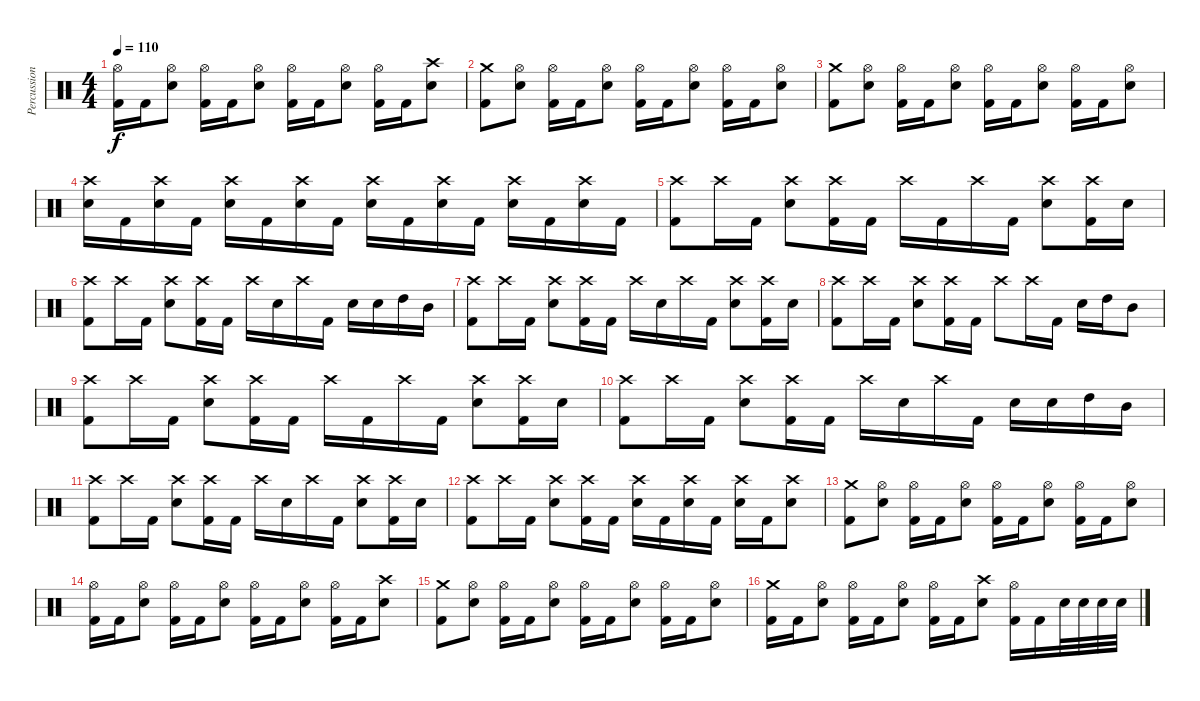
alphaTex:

\track ("Percussion" "Percussion") {instrument percussion}
\staff {score}
\articulation defaults
\ts (4 4)
\tempo 110
\clef neutral
\ks c
("Hi-Hat (open)" "Kick (hit) 2").16{dy f} "Kick (hit) 2".16 ("Hi-Hat (open)" "Snare (hit) 2").8 ("Hi-Hat (open)" "Kick (hit) 2").16 "Kick (hit) 2".16 ("Hi-Hat (open)" "Snare (hit) 2").8 ("Hi-Hat (open)" "Kick (hit) 2").16 "Kick (hit) 2".16 ("Hi-Hat (open)" "Snare (hit) 2").8 ("Hi-Hat (open)" "Kick (hit) 2").16 "Kick (hit) 2".16 ("Crash high (hit)" "Snare (hit) 2").8 |
("Crash medium (hit)" "Kick (hit) 2").8 ("Hi-Hat (open)" "Snare (hit) 2").8 ("Hi-Hat (open)" "Kick (hit) 2").16 "Kick (hit) 2".16 ("Hi-Hat (open)" "Snare (hit) 2").8 ("Hi-Hat (open)" "Kick (hit) 2").16 "Kick (hit) 2".16 ("Hi-Hat (open)" "Snare (hit) 2").8 ("Hi-Hat (open)" "Kick (hit) 2").16 "Kick (hit) 2".16 ("Hi-Hat (open)" "Snare (hit) 2").8 |
("Crash medium (hit)" "Kick (hit) 2").8 ("Hi-Hat (open)" "Snare (hit) 2").8 ("Hi-Hat (open)" "Kick (hit) 2").16 "Kick (hit) 2".16 ("Hi-Hat (open)" "Snare (hit) 2").8 ("Hi-Hat (open)" "Kick (hit) 2").16 "Kick (hit) 2".16 ("Hi-Hat (open)" "Snare (hit) 2").8 ("Hi-Hat (open)" "Kick (hit) 2").16 "Kick (hit) 2".16 ("Hi-Hat (open)" "Snare (hit) 2").8 |
("Crash high (hit)" "Snare (hit) 2").16 "Kick (hit) 2".16 ("Crash high (hit)" "Snare (hit) 2").16 "Kick (hit) 2".16 ("Crash high (hit)" "Snare (hit) 2").16 "Kick (hit) 2".16 ("Crash high (hit)" "Snare (hit) 2").16 "Kick (hit) 2".16 ("Crash high (hit)" "Snare (hit) 2").16 "Kick (hit) 2".16 ("Crash high (hit)" "Snare (hit) 2").16 "Kick (hit) 2".16 ("Crash high (hit)" "Snare (hit) 2").16 "Kick (hit) 2".16 ("Crash high (hit)" "Snare (hit) 2").16 "Kick (hit) 2".16 |
("Crash high (hit)" "Kick (hit) 2").8 "Crash high (hit)".16 "Kick (hit) 2".16 ("Crash high (hit)" "Snare (hit) 2").8 ("Crash high (hit)" "Kick (hit) 2").16 "Kick (hit) 2".16 "Crash high (hit)".16 "Kick (hit) 2".16 "Crash high (hit)".16 "Kick (hit) 2".16 ("Crash high (hit)" "Snare (hit) 2").8 ("Crash high (hit)" "Kick (hit) 2").16 "Snare (hit) 2".16 |
("Crash high (hit)" "Kick (hit) 2").8 "Crash high (hit)".16 "Kick (hit) 2".16 ("Crash high (hit)" "Snare (hit) 2").8 ("Crash high (hit)" "Kick (hit) 2").16 "Kick (hit) 2".16 "Crash high (hit)".16 "Snare (hit) 2".16 "Crash high (hit)".16 "Kick (hit) 2".16 "Snare (hit) 2".16 "Snare (hit) 2".16 "High Tom (hit)".16 "Mid Tom (hit)".16 |
("Crash high (hit)" "Kick (hit) 2").8 "Crash high (hit)".16 "Kick (hit) 2".16 ("Crash high (hit)" "Snare (hit) 2").8 ("Crash high (hit)" "Kick (hit) 2").16 "Kick (hit) 2".16 "Crash high (hit)".16 "Snare (hit) 2".16 "Crash high (hit)".16 "Kick (hit) 2".16 ("Crash high (hit)" "Snare (hit) 2").8 ("Crash high (hit)" "Kick (hit) 2").16 "Snare (hit) 2".16 |
("Crash high (hit)" "Kick (hit) 2").8 "Crash high (hit)".16 "Kick (hit) 2".16 ("Crash high (hit)" "Snare (hit) 2").8 ("Crash high (hit)" "Kick (hit) 2").16 "Kick (hit) 2".16 "Crash high (hit)".8 "Crash high (hit)".16 "Kick (hit) 2".16 "Snare (hit) 2".16 "High Tom (hit)".16 "Mid Tom (hit)".8 |
("Crash high (hit)" "Kick (hit) 2").8 "Crash high (hit)".16 "Kick (hit) 2".16 ("Crash high (hit)" "Snare (hit) 2").8 ("Crash high (hit)" "Kick (hit) 2").16 "Kick (hit) 2".16 "Crash high (hit)".16 "Kick (hit) 2".16 "Crash high (hit)".16 "Kick (hit) 2".16 ("Crash high (hit)" "Snare (hit) 2").8 ("Crash high (hit)" "Kick (hit) 2").16 "Snare (hit) 2".16 |
("Crash high (hit)" "Kick (hit) 2").8 "Crash high (hit)".16 "Kick (hit) 2".16 ("Crash high (hit)" "Snare (hit) 2").8 ("Crash high (hit)" "Kick (hit) 2").16 "Kick (hit) 2".16 "Crash high (hit)".16 "Snare (hit) 2".16 "Crash high (hit)".16 "Kick (hit) 2".16 "Snare (hit) 2".16 "Snare (hit) 2".16 "High Tom (hit)".16 "Mid Tom (hit)".16 |
("Crash high (hit)" "Kick (hit) 2").8 "Crash high (hit)".16 "Kick (hit) 2".16 ("Crash high (hit)" "Snare (hit) 2").8 ("Crash high (hit)" "Kick (hit) 2").16 "Kick (hit) 2".16 "Crash high (hit)".16 "Snare (hit) 2".16 "Crash high (hit)".16 "Kick (hit) 2".16 ("Crash high (hit)" "Snare (hit) 2").8 ("Crash high (hit)" "Kick (hit) 2").16 "Snare (hit) 2".16 |
("Crash high (hit)" "Kick (hit) 2").8 "Crash high (hit)".16 "Kick (hit) 2".16 ("Crash high (hit)" "Snare (hit) 2").8 ("Crash high (hit)" "Kick (hit) 2").16 "Kick (hit) 2".16 ("Crash high (hit)" "Snare (hit) 2").16 "Kick (hit) 2".16 ("Crash high (hit)" "Snare (hit) 2").16 "Kick (hit) 2".16 ("Crash high (hit)" "Snare (hit) 2").16 "Kick (hit) 2".16 ("Crash high (hit)" "Snare (hit) 2").8 |
("Crash medium (hit)" "Kick (hit) 2").8 ("Hi-Hat (open)" "Snare (hit) 2").8 ("Hi-Hat (open)" "Kick (hit) 2").16 "Kick (hit) 2".16 ("Hi-Hat (open)" "Snare (hit) 2").8 ("Hi-Hat (open)" "Kick (hit) 2").16 "Kick (hit) 2".16 ("Hi-Hat (open)" "Snare (hit) 2").8 ("Hi-Hat (open)" "Kick (hit) 2").16 "Kick (hit) 2".16 ("Hi-Hat (open)" "Snare (hit) 2").8 |
("Hi-Hat (open)" "Kick (hit) 2").16 "Kick (hit) 2".16 ("Hi-Hat (open)" "Snare (hit) 2").8 ("Hi-Hat (open)" "Kick (hit) 2").16 "Kick (hit) 2".16 ("Hi-Hat (open)" "Snare (hit) 2").8 ("Hi-Hat (open)" "Kick (hit) 2").16 "Kick (hit) 2".16 ("Hi-Hat (open)" "Snare (hit) 2").8 ("Hi-Hat (open)" "Kick (hit) 2").16 "Kick (hit) 2".16 ("Crash high (hit)" "Snare (hit) 2").8 |
("Crash medium (hit)" "Kick (hit) 2").8 ("Hi-Hat (open)" "Snare (hit) 2").8 ("Hi-Hat (open)" "Kick (hit) 2").16 "Kick (hit) 2".16 ("Hi-Hat (open)" "Snare (hit) 2").8 ("Hi-Hat (open)" "Kick (hit) 2").16 "Kick (hit) 2".16 ("Hi-Hat (open)" "Snare (hit) 2").8 ("Hi-Hat (open)" "Kick (hit) 2").16 "Kick (hit) 2".16 ("Hi-Hat (open)" "Snare (hit) 2").8 |
("Crash medium (hit)" "Kick (hit) 2").16 "Kick (hit) 2".16 ("Hi-Hat (open)" "Snare (hit) 2").8 ("Hi-Hat (open)" "Kick (hit) 2").16 "Kick (hit) 2".16 ("Hi-Hat (open)" "Snare (hit) 2").8 ("Hi-Hat (open)" "Kick (hit) 2").16 "Kick (hit) 2".16 ("Crash high (hit)" "Snare (hit) 2").8 ("Hi-Hat (open)" "Kick (hit) 2").16 "Kick (hit) 2".16 "Snare (hit) 2".32 "Snare (hit) 2".32 "Snare (hit) 2".32 "Snare (hit) 2".32
